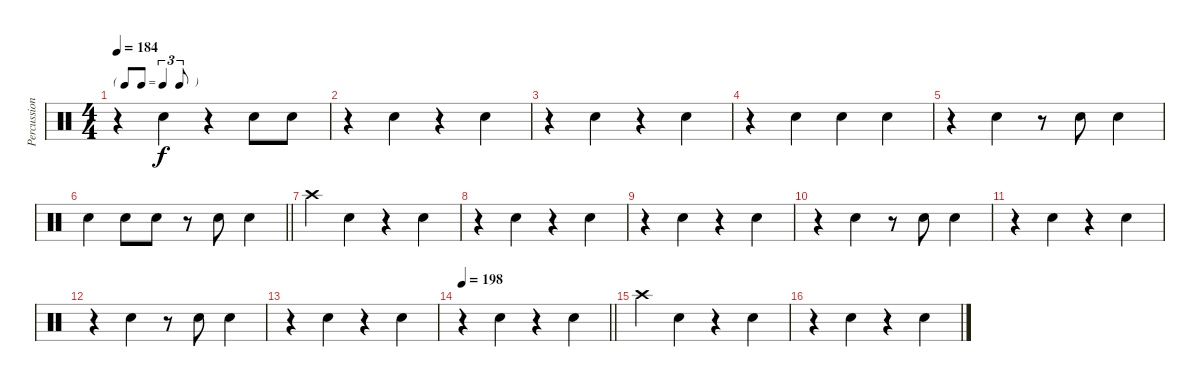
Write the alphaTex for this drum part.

\track ("Percussion" "Percussion") {instrument percussion}
\staff {score}
\articulation defaults
\ts (4 4)
\tf triplet8th
\tempo 184
\clef neutral
\ks c
r.4{dy f} "Snare (hit) 2".4 r.4 "Snare (hit) 2".8 "Snare (hit) 2".8 |
r.4 "Snare (hit) 2".4 r.4 "Snare (hit) 2".4 |
r.4 "Snare (hit) 2".4 r.4 "Snare (hit) 2".4 |
r.4 "Snare (hit) 2".4 "Snare (hit) 2".4 "Snare (hit) 2".4 |
r.4 "Snare (hit) 2".4 r.8 "Snare (hit) 2".8 "Snare (hit) 2".4 |
\barLineRight lightlight "Snare (hit) 2".4 "Snare (hit) 2".8 "Snare (hit) 2".8
r.8 "Snare (hit) 2".8 "Snare (hit) 2".4 |
"Crash high (hit)".4 "Snare (hit) 2".4 r.4 "Snare (hit) 2".4 |
r.4 "Snare (hit) 2".4 r.4 "Snare (hit) 2".4 |
r.4 "Snare (hit) 2".4 r.4 "Snare (hit) 2".4 |
r.4 "Snare (hit) 2".4 r.8 "Snare (hit) 2".8 "Snare (hit) 2".4 |
r.4 "Snare (hit) 2".4 r.4 "Snare (hit) 2".4 |
r.4 "Snare (hit) 2".4 r.8 "Snare (hit) 2".8 "Snare (hit) 2".4 |
r.4 "Snare (hit) 2".4 r.4 "Snare (hit) 2".4 |
\tempo 198
\barLineRight lightlight
r.4 "Snare (hit) 2".4 r.4 "Snare (hit) 2".4 |
"Crash high (hit)".4 "Snare (hit) 2".4 r.4 "Snare (hit) 2".4 |
r.4 "Snare (hit) 2".4 r.4 "Snare (hit) 2".4
